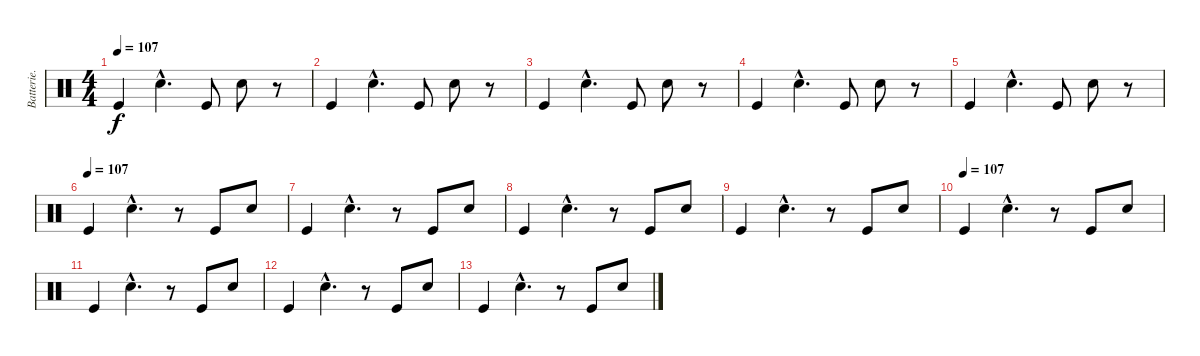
\track ("Batterie." "Batterie.") {instrument percussion}
\staff {score}
\articulation defaults
\ts (4 4)
\tempo 107
\clef neutral
\ks c "Kick (hit)".4{dy f} "Electric Snare (hit)"{hac}.4{d} "Kick (hit)".8 "Electric Snare (hit)".8
r.8 |
"Kick (hit)".4 "Electric Snare (hit)"{hac}.4{d} "Kick (hit)".8 "Electric Snare (hit)".8 r.8 |
"Kick (hit)".4 "Electric Snare (hit)"{hac}.4{d} "Kick (hit)".8 "Electric Snare (hit)".8 r.8 |
"Kick (hit)".4 "Electric Snare (hit)"{hac}.4{d} "Kick (hit)".8 "Electric Snare (hit)".8 r.8 |
"Kick (hit)".4 "Electric Snare (hit)"{hac}.4{d} "Kick (hit)".8 "Electric Snare (hit)".8 r.8 |
\tempo (107)
"Kick (hit)".4 "Electric Snare (hit)"{hac}.4{d} r.8 "Kick (hit)".8 "Electric Snare (hit)".8 |
"Kick (hit)".4 "Electric Snare (hit)"{hac}.4{d} r.8 "Kick (hit)".8 "Electric Snare (hit)".8 |
"Kick (hit)".4 "Electric Snare (hit)"{hac}.4{d} r.8 "Kick (hit)".8 "Electric Snare (hit)".8 |
"Kick (hit)".4 "Electric Snare (hit)"{hac}.4{d} r.8 "Kick (hit)".8 "Electric Snare (hit)".8 |
\tempo (107)
"Kick (hit)".4 "Electric Snare (hit)"{hac}.4{d} r.8 "Kick (hit)".8 "Electric Snare (hit)".8 |
"Kick (hit)".4 "Electric Snare (hit)"{hac}.4{d} r.8 "Kick (hit)".8 "Electric Snare (hit)".8 |
"Kick (hit)".4 "Electric Snare (hit)"{hac}.4{d} r.8 "Kick (hit)".8 "Electric Snare (hit)".8 |
"Kick (hit)".4 "Electric Snare (hit)"{hac}.4{d} r.8 "Kick (hit)".8 "Electric Snare (hit)".8
